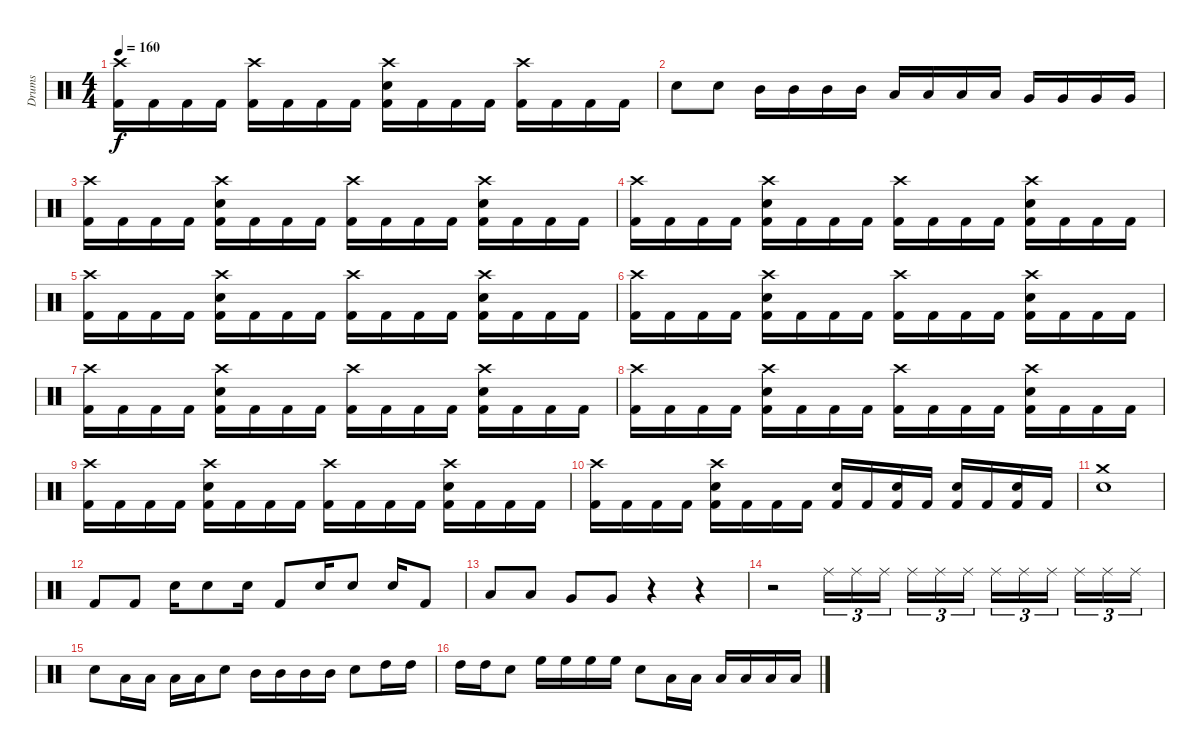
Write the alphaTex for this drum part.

\track ("Drums" "Drums") {instrument percussion}
\staff {score}
\articulation defaults
\ts (4 4)
\tempo 160
\clef neutral
\ks c
("Crash high (hit)" "Kick (hit) 2").16{dy f} "Kick (hit) 2".16 "Kick (hit) 2".16 "Kick (hit) 2".16 ("Crash high (hit)" "Kick (hit) 2").16 "Kick (hit) 2".16 "Kick (hit) 2".16 "Kick (hit) 2".16 ("Crash high (hit)" "Electric Snare (hit)" "Kick (hit) 2").16 "Kick (hit) 2".16 "Kick (hit) 2".16 "Kick (hit) 2".16 ("Crash high (hit)" "Kick (hit) 2").16 "Kick (hit) 2".16 "Kick (hit) 2".16 "Kick (hit) 2".16 |
"Electric Snare (hit)".8 "Electric Snare (hit)".8 "Mid Tom (hit)".16 "Mid Tom (hit)".16 "Mid Tom (hit)".16 "Mid Tom (hit)".16 "Low Tom (hit)".16 "Low Tom (hit)".16 "Low Tom (hit)".16 "Low Tom (hit)".16 "Very Low Tom (hit)".16 "Very Low Tom (hit)".16 "Very Low Tom (hit)".16 "Very Low Tom (hit)".16 |
("Crash high (hit)" "Kick (hit) 2").16 "Kick (hit) 2".16 "Kick (hit) 2".16 "Kick (hit) 2".16 ("Crash high (hit)" "Electric Snare (hit)" "Kick (hit) 2").16 "Kick (hit) 2".16 "Kick (hit) 2".16 "Kick (hit) 2".16 ("Crash high (hit)" "Kick (hit) 2").16 "Kick (hit) 2".16 "Kick (hit) 2".16 "Kick (hit) 2".16 ("Crash high (hit)" "Electric Snare (hit)" "Kick (hit) 2").16 "Kick (hit) 2".16 "Kick (hit) 2".16 "Kick (hit) 2".16 |
("Crash high (hit)" "Kick (hit) 2").16 "Kick (hit) 2".16 "Kick (hit) 2".16 "Kick (hit) 2".16 ("Crash high (hit)" "Electric Snare (hit)" "Kick (hit) 2").16 "Kick (hit) 2".16 "Kick (hit) 2".16 "Kick (hit) 2".16 ("Crash high (hit)" "Kick (hit) 2").16 "Kick (hit) 2".16 "Kick (hit) 2".16 "Kick (hit) 2".16 ("Crash high (hit)" "Electric Snare (hit)" "Kick (hit) 2").16 "Kick (hit) 2".16 "Kick (hit) 2".16 "Kick (hit) 2".16 |
("Crash high (hit)" "Kick (hit) 2").16 "Kick (hit) 2".16 "Kick (hit) 2".16 "Kick (hit) 2".16 ("Crash high (hit)" "Electric Snare (hit)" "Kick (hit) 2").16 "Kick (hit) 2".16 "Kick (hit) 2".16 "Kick (hit) 2".16 ("Crash high (hit)" "Kick (hit) 2").16 "Kick (hit) 2".16 "Kick (hit) 2".16 "Kick (hit) 2".16 ("Crash high (hit)" "Electric Snare (hit)" "Kick (hit) 2").16 "Kick (hit) 2".16 "Kick (hit) 2".16 "Kick (hit) 2".16 |
("Crash high (hit)" "Kick (hit) 2").16 "Kick (hit) 2".16 "Kick (hit) 2".16 "Kick (hit) 2".16 ("Crash high (hit)" "Electric Snare (hit)" "Kick (hit) 2").16 "Kick (hit) 2".16 "Kick (hit) 2".16 "Kick (hit) 2".16 ("Crash high (hit)" "Kick (hit) 2").16 "Kick (hit) 2".16 "Kick (hit) 2".16 "Kick (hit) 2".16 ("Crash high (hit)" "Electric Snare (hit)" "Kick (hit) 2").16 "Kick (hit) 2".16 "Kick (hit) 2".16 "Kick (hit) 2".16 |
("Crash high (hit)" "Kick (hit) 2").16 "Kick (hit) 2".16 "Kick (hit) 2".16 "Kick (hit) 2".16 ("Crash high (hit)" "Electric Snare (hit)" "Kick (hit) 2").16 "Kick (hit) 2".16 "Kick (hit) 2".16 "Kick (hit) 2".16 ("Crash high (hit)" "Kick (hit) 2").16 "Kick (hit) 2".16 "Kick (hit) 2".16 "Kick (hit) 2".16 ("Crash high (hit)" "Electric Snare (hit)" "Kick (hit) 2").16 "Kick (hit) 2".16 "Kick (hit) 2".16 "Kick (hit) 2".16 |
("Crash high (hit)" "Kick (hit) 2").16 "Kick (hit) 2".16 "Kick (hit) 2".16 "Kick (hit) 2".16 ("Crash high (hit)" "Electric Snare (hit)" "Kick (hit) 2").16 "Kick (hit) 2".16 "Kick (hit) 2".16 "Kick (hit) 2".16 ("Crash high (hit)" "Kick (hit) 2").16 "Kick (hit) 2".16 "Kick (hit) 2".16 "Kick (hit) 2".16 ("Crash high (hit)" "Electric Snare (hit)" "Kick (hit) 2").16 "Kick (hit) 2".16 "Kick (hit) 2".16 "Kick (hit) 2".16 |
("Crash high (hit)" "Kick (hit) 2").16 "Kick (hit) 2".16 "Kick (hit) 2".16 "Kick (hit) 2".16 ("Crash high (hit)" "Electric Snare (hit)" "Kick (hit) 2").16 "Kick (hit) 2".16 "Kick (hit) 2".16 "Kick (hit) 2".16 ("Crash high (hit)" "Kick (hit) 2").16 "Kick (hit) 2".16 "Kick (hit) 2".16 "Kick (hit) 2".16 ("Crash high (hit)" "Electric Snare (hit)" "Kick (hit) 2").16 "Kick (hit) 2".16 "Kick (hit) 2".16 "Kick (hit) 2".16 |
("Crash high (hit)" "Kick (hit) 2").16 "Kick (hit) 2".16 "Kick (hit) 2".16 "Kick (hit) 2".16 ("Crash high (hit)" "Electric Snare (hit)" "Kick (hit) 2").16 "Kick (hit) 2".16 "Kick (hit) 2".16 "Kick (hit) 2".16 ("Electric Snare (hit)" "Kick (hit) 2").16 "Kick (hit) 2".16 ("Electric Snare (hit)" "Kick (hit) 2").16 "Kick (hit) 2".16 ("Electric Snare (hit)" "Kick (hit) 2").16 "Kick (hit) 2".16 ("Electric Snare (hit)" "Kick (hit) 2").16 "Kick (hit) 2".16 |
("Crash medium (hit)" "Electric Snare (hit)").1 |
"Kick (hit) 2".8 "Kick (hit) 2".8 "Electric Snare (hit)".16 "Electric Snare (hit)".8 "Electric Snare (hit)".16 "Kick (hit) 2".8 "Electric Snare (hit)".16 "Electric Snare (hit)".8 "Electric Snare (hit)".16 "Kick (hit) 2".8 |
"Low Tom (hit)".8 "Low Tom (hit)".8 "Very Low Tom (hit)".8 "Very Low Tom (hit)".8 r.4 r.4{volume 4} |
r.2{volume 10} "Ride (middle)".16{tu (3 2)} "Ride (middle)".16{tu (3 2)} "Ride (middle)".16{tu (3 2)} "Ride (middle)".16{tu (3 2)} "Ride (middle)".16{tu (3 2)} "Ride (middle)".16{tu (3 2)} "Ride (middle)".16{tu (3 2)} "Ride (middle)".16{tu (3 2)} "Ride (middle)".16{tu (3 2)} "Ride (middle)".16{tu (3 2)} "Ride (middle)".16{tu (3 2)} "Ride (middle)".16{tu (3 2)} |
\section ("" " ")
"Electric Snare (hit)".8 "Low Tom (hit)".16 "Low Tom (hit)".16 "Low Tom (hit)".16 "Low Tom (hit)".16 "Electric Snare (hit)".8 "Mid Tom (hit)".16 "Mid Tom (hit)".16 "Mid Tom (hit)".16 "Mid Tom (hit)".16 "Electric Snare (hit)".8 "High Tom (hit)".16 "High Tom (hit)".16 |
"High Tom (hit)".16 "High Tom (hit)".16 "Electric Snare (hit)".8 "High Floor Tom (hit)".16 "High Floor Tom (hit)".16 "High Floor Tom (hit)".16 "High Floor Tom (hit)".16 "Electric Snare (hit)".8 "Low Tom (hit)".16 "Low Tom (hit)".16 "Low Tom (hit)".16 "Low Tom (hit)".16 "Low Tom (hit)".16 "Low Tom (hit)".16
